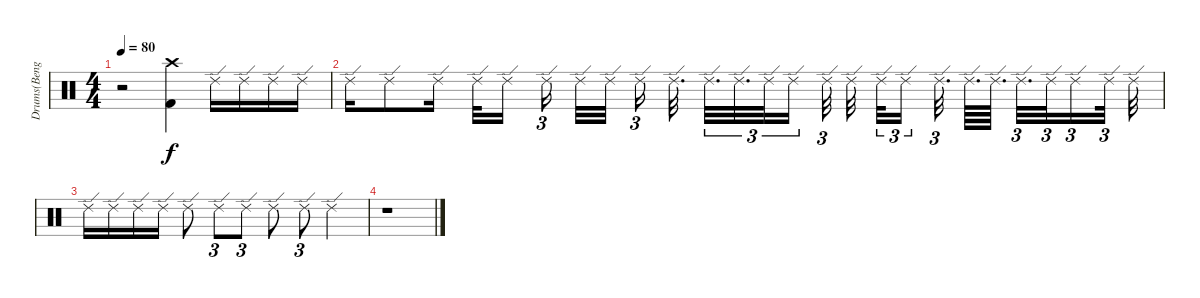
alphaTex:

\track ("Drums(Bengerg)" "Drums(Beng") {instrument percussion}
\staff {score}
\articulation defaults
\ts (4 4)
\tempo 80
\clef neutral
\ks c
r.2{dy f} ("Crash high (hit)" "Kick (hit) 2").4 "Ride (edge) 2".16{volume 9} "Ride (edge) 2".16 "Ride (edge) 2".16 "Ride (edge) 2".16 |
"Ride (edge) 2".16 "Ride (edge) 2".8 "Ride (edge) 2".16 "Ride (edge) 2".32 "Ride (edge) 2".16 "Ride (edge) 2".16{tu (3 2)} "Ride (edge) 2".32 "Ride (edge) 2".32 "Ride (edge) 2".16{tu (3 2)} "Ride (edge) 2".32{d} "Ride (edge) 2".32{d tu (3 2)} "Ride (edge) 2".32{d tu (3 2)} "Ride (edge) 2".32{tu (3 2)} "Ride (edge) 2".16{tu (3 2)} "Ride (edge) 2".32{tu (3 2)} "Ride (edge) 2".32 "Ride (edge) 2".32{tu (3 2)} "Ride (edge) 2".16{tu (3 2)} "Ride (edge) 2".32{d tu (3 2)} "Ride (edge) 2".64{d} "Ride (edge) 2".64{d} "Ride (edge) 2".32{d tu (3 2)} "Ride (edge) 2".32{tu (3 2)} "Ride (edge) 2".16{tu (3 2)} "Ride (edge) 2".32{tu (3 2)} "Ride (edge) 2".32 |
"Ride (edge) 2".16 "Ride (edge) 2".16 "Ride (edge) 2".16 "Ride (edge) 2".16 "Ride (edge) 2".8 "Ride (edge) 2".8{tu (3 2)} "Ride (edge) 2".8{tu (3 2)} "Ride (edge) 2".8 "Ride (edge) 2".8{tu (3 2)} "Ride (edge) 2".4 |
r.1
